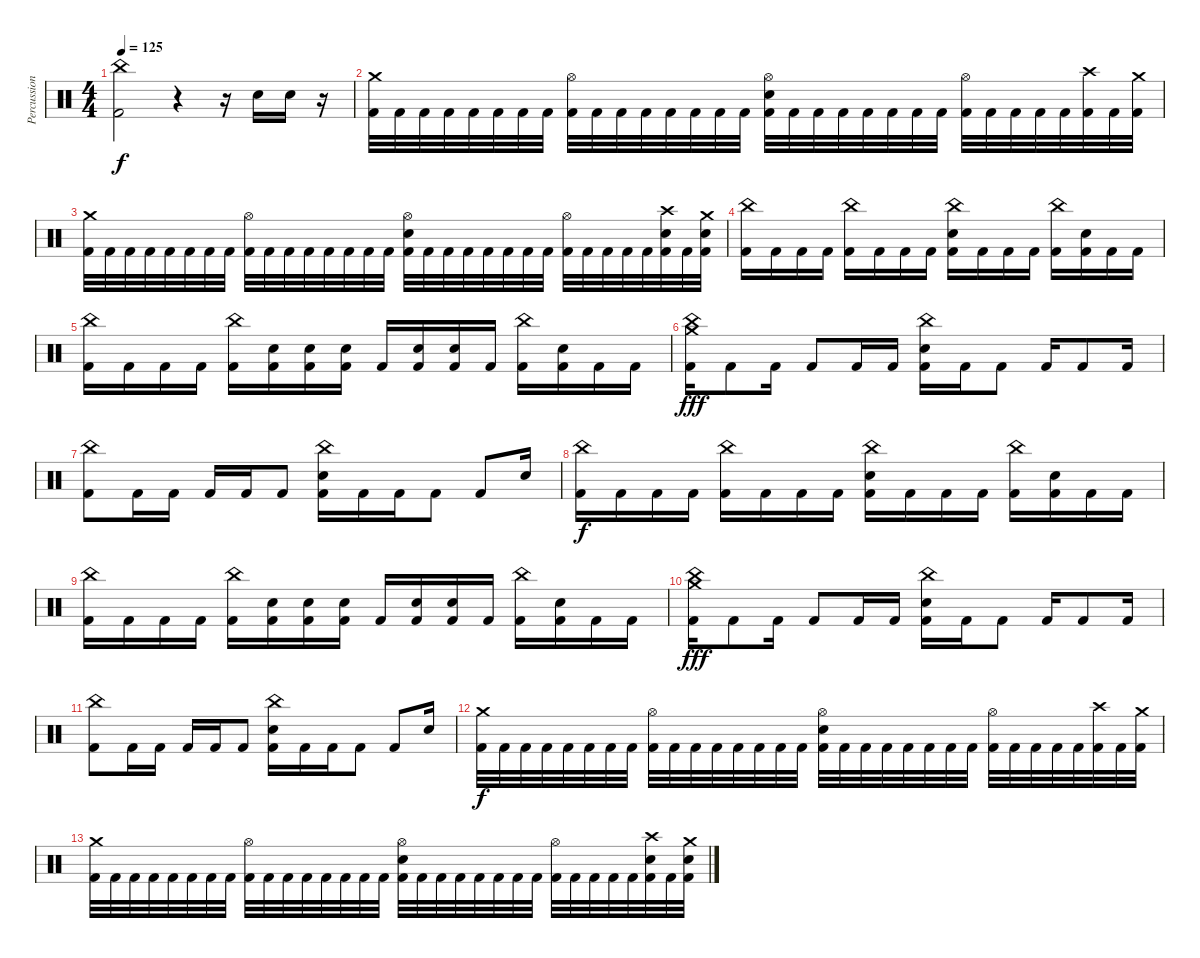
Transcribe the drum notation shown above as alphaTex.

\track ("Percussion" "Percussion") {instrument percussion}
\staff {score}
\articulation defaults
\ts (4 4)
\tempo 125
\clef neutral
\ks c
("China (hit)" "Kick (hit) 2").2{dy f} r.4 r.16 "Electric Snare (hit)".16 "Electric Snare (hit)".16 r.16 |
("Crash medium (hit)" "Kick (hit) 2").32 "Kick (hit) 2".32 "Kick (hit) 2".32 "Kick (hit) 2".32 "Kick (hit) 2".32 "Kick (hit) 2".32 "Kick (hit) 2".32 "Kick (hit) 2".32 ("Hi-Hat (open)" "Kick (hit) 2").32 "Kick (hit) 2".32 "Kick (hit) 2".32 "Kick (hit) 2".32 "Kick (hit) 2".32 "Kick (hit) 2".32 "Kick (hit) 2".32 "Kick (hit) 2".32 ("Hi-Hat (open)" "Electric Snare (hit)" "Kick (hit) 2").32 "Kick (hit) 2".32 "Kick (hit) 2".32 "Kick (hit) 2".32 "Kick (hit) 2".32 "Kick (hit) 2".32 "Kick (hit) 2".32 "Kick (hit) 2".32 ("Hi-Hat (open)" "Kick (hit) 2").32 "Kick (hit) 2".32 "Kick (hit) 2".32 "Kick (hit) 2".32 "Kick (hit) 2".32 ("Crash high (hit)" "Kick (hit) 2").32 "Kick (hit) 2".32 ("Crash medium (hit)" "Kick (hit) 2").32 |
("Crash medium (hit)" "Kick (hit) 2").32 "Kick (hit) 2".32 "Kick (hit) 2".32 "Kick (hit) 2".32 "Kick (hit) 2".32 "Kick (hit) 2".32 "Kick (hit) 2".32 "Kick (hit) 2".32 ("Hi-Hat (open)" "Kick (hit) 2").32 "Kick (hit) 2".32 "Kick (hit) 2".32 "Kick (hit) 2".32 "Kick (hit) 2".32 "Kick (hit) 2".32 "Kick (hit) 2".32 "Kick (hit) 2".32 ("Hi-Hat (open)" "Electric Snare (hit)" "Kick (hit) 2").32 "Kick (hit) 2".32 "Kick (hit) 2".32 "Kick (hit) 2".32 "Kick (hit) 2".32 "Kick (hit) 2".32 "Kick (hit) 2".32 "Kick (hit) 2".32 ("Hi-Hat (open)" "Kick (hit) 2").32 "Kick (hit) 2".32 "Kick (hit) 2".32 "Kick (hit) 2".32 "Kick (hit) 2".32 ("Crash high (hit)" "Electric Snare (hit)" "Kick (hit) 2").32 "Kick (hit) 2".32 ("Crash medium (hit)" "Electric Snare (hit)" "Kick (hit) 2").32 |
("China (hit)" "Kick (hit) 2").16 "Kick (hit) 2".16 "Kick (hit) 2".16 "Kick (hit) 2".16 ("China (hit)" "Kick (hit) 2").16 "Kick (hit) 2".16 "Kick (hit) 2".16 "Kick (hit) 2".16 ("China (hit)" "Electric Snare (hit)" "Kick (hit) 2").16 "Kick (hit) 2".16 "Kick (hit) 2".16 "Kick (hit) 2".16 ("China (hit)" "Kick (hit) 2").16 ("Electric Snare (hit)" "Kick (hit) 2").16 "Kick (hit) 2".16 "Kick (hit) 2".16 |
("China (hit)" "Kick (hit) 2").16 "Kick (hit) 2".16 "Kick (hit) 2".16 "Kick (hit) 2".16 ("China (hit)" "Kick (hit) 2").16 ("Electric Snare (hit)" "Kick (hit) 2").16 ("Electric Snare (hit)" "Kick (hit) 2").16 ("Electric Snare (hit)" "Kick (hit) 2").16 "Kick (hit) 2".16 ("Electric Snare (hit)" "Kick (hit) 2").16 ("Electric Snare (hit)" "Kick (hit) 2").16 "Kick (hit) 2".16 ("China (hit)" "Kick (hit) 2").16 ("Electric Snare (hit)" "Kick (hit) 2").16 "Kick (hit) 2".16 "Kick (hit) 2".16 |
("China (hit)" "Crash medium (hit)" "Kick (hit) 2").16{dy fff} "Kick (hit) 2".8 "Kick (hit) 2".16 "Kick (hit) 2".8 "Kick (hit) 2".16 "Kick (hit) 2".16 ("China (hit)" "Electric Snare (hit)" "Kick (hit) 2").16 "Kick (hit) 2".16 "Kick (hit) 2".8 "Kick (hit) 2".16 "Kick (hit) 2".8 "Kick (hit) 2".16 |
("China (hit)" "Kick (hit) 2").8 "Kick (hit) 2".16 "Kick (hit) 2".16 "Kick (hit) 2".16 "Kick (hit) 2".16 "Kick (hit) 2".8 ("China (hit)" "Electric Snare (hit)" "Kick (hit) 2").16 "Kick (hit) 2".16 "Kick (hit) 2".16 "Kick (hit) 2".8 "Kick (hit) 2".8 "Electric Snare (hit)".16 |
("China (hit)" "Kick (hit) 2").16{dy f} "Kick (hit) 2".16 "Kick (hit) 2".16 "Kick (hit) 2".16 ("China (hit)" "Kick (hit) 2").16 "Kick (hit) 2".16 "Kick (hit) 2".16 "Kick (hit) 2".16 ("China (hit)" "Electric Snare (hit)" "Kick (hit) 2").16 "Kick (hit) 2".16 "Kick (hit) 2".16 "Kick (hit) 2".16 ("China (hit)" "Kick (hit) 2").16 ("Electric Snare (hit)" "Kick (hit) 2").16 "Kick (hit) 2".16 "Kick (hit) 2".16 |
("China (hit)" "Kick (hit) 2").16 "Kick (hit) 2".16 "Kick (hit) 2".16 "Kick (hit) 2".16 ("China (hit)" "Kick (hit) 2").16 ("Electric Snare (hit)" "Kick (hit) 2").16 ("Electric Snare (hit)" "Kick (hit) 2").16 ("Electric Snare (hit)" "Kick (hit) 2").16 "Kick (hit) 2".16 ("Electric Snare (hit)" "Kick (hit) 2").16 ("Electric Snare (hit)" "Kick (hit) 2").16 "Kick (hit) 2".16 ("China (hit)" "Kick (hit) 2").16 ("Electric Snare (hit)" "Kick (hit) 2").16 "Kick (hit) 2".16 "Kick (hit) 2".16 |
("China (hit)" "Crash medium (hit)" "Kick (hit) 2").16{dy fff} "Kick (hit) 2".8 "Kick (hit) 2".16 "Kick (hit) 2".8 "Kick (hit) 2".16 "Kick (hit) 2".16 ("China (hit)" "Electric Snare (hit)" "Kick (hit) 2").16 "Kick (hit) 2".16 "Kick (hit) 2".8 "Kick (hit) 2".16 "Kick (hit) 2".8 "Kick (hit) 2".16 |
("China (hit)" "Kick (hit) 2").8 "Kick (hit) 2".16 "Kick (hit) 2".16 "Kick (hit) 2".16 "Kick (hit) 2".16 "Kick (hit) 2".8 ("China (hit)" "Electric Snare (hit)" "Kick (hit) 2").16 "Kick (hit) 2".16 "Kick (hit) 2".16 "Kick (hit) 2".8 "Kick (hit) 2".8 "Electric Snare (hit)".16 |
("Crash medium (hit)" "Kick (hit) 2").32{dy f} "Kick (hit) 2".32 "Kick (hit) 2".32 "Kick (hit) 2".32 "Kick (hit) 2".32 "Kick (hit) 2".32 "Kick (hit) 2".32 "Kick (hit) 2".32 ("Hi-Hat (open)" "Kick (hit) 2").32 "Kick (hit) 2".32 "Kick (hit) 2".32 "Kick (hit) 2".32 "Kick (hit) 2".32 "Kick (hit) 2".32 "Kick (hit) 2".32 "Kick (hit) 2".32 ("Hi-Hat (open)" "Electric Snare (hit)" "Kick (hit) 2").32 "Kick (hit) 2".32 "Kick (hit) 2".32 "Kick (hit) 2".32 "Kick (hit) 2".32 "Kick (hit) 2".32 "Kick (hit) 2".32 "Kick (hit) 2".32 ("Hi-Hat (open)" "Kick (hit) 2").32 "Kick (hit) 2".32 "Kick (hit) 2".32 "Kick (hit) 2".32 "Kick (hit) 2".32 ("Crash high (hit)" "Kick (hit) 2").32 "Kick (hit) 2".32 ("Crash medium (hit)" "Kick (hit) 2").32 |
("Crash medium (hit)" "Kick (hit) 2").32 "Kick (hit) 2".32 "Kick (hit) 2".32 "Kick (hit) 2".32 "Kick (hit) 2".32 "Kick (hit) 2".32 "Kick (hit) 2".32 "Kick (hit) 2".32 ("Hi-Hat (open)" "Kick (hit) 2").32 "Kick (hit) 2".32 "Kick (hit) 2".32 "Kick (hit) 2".32 "Kick (hit) 2".32 "Kick (hit) 2".32 "Kick (hit) 2".32 "Kick (hit) 2".32 ("Hi-Hat (open)" "Electric Snare (hit)" "Kick (hit) 2").32 "Kick (hit) 2".32 "Kick (hit) 2".32 "Kick (hit) 2".32 "Kick (hit) 2".32 "Kick (hit) 2".32 "Kick (hit) 2".32 "Kick (hit) 2".32 ("Hi-Hat (open)" "Kick (hit) 2").32 "Kick (hit) 2".32 "Kick (hit) 2".32 "Kick (hit) 2".32 "Kick (hit) 2".32 ("Crash high (hit)" "Electric Snare (hit)" "Kick (hit) 2").32 "Kick (hit) 2".32 ("Crash medium (hit)" "Electric Snare (hit)" "Kick (hit) 2").32
